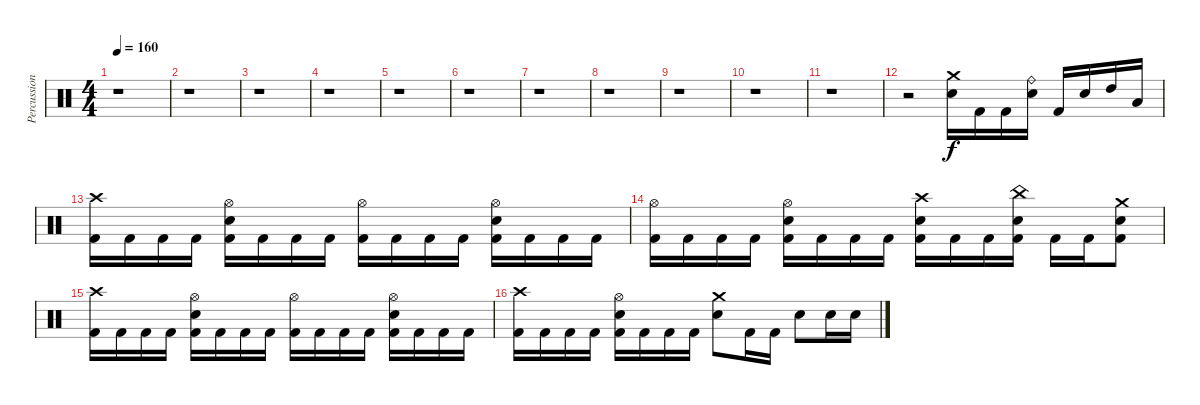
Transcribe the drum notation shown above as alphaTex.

\track ("Percussion" "Percussion") {instrument percussion}
\staff {score}
\articulation defaults
\ts (4 4)
\tempo 160
\clef neutral
\ks c
r.1{dy f} |
r.1 |
r.1 |
r.1 |
r.1 |
r.1 |
r.1 |
r.1 |
r.1 |
r.1 |
r.1 |
r.2 ("Crash medium (hit)" "Electric Snare (hit)").16 "Kick (hit) 2".16 "Kick (hit) 2".16 ("Ride (bell)" "Electric Snare (hit)").16 "Kick (hit) 2".16 "Electric Snare (hit)".16 "High Tom (hit)".16 "Low Tom (hit)".16 |
("Crash high (hit)" "Kick (hit) 2").16 "Kick (hit) 2".16 "Kick (hit) 2".16 "Kick (hit) 2".16 ("Hi-Hat (open)" "Electric Snare (hit)" "Kick (hit) 2").16 "Kick (hit) 2".16 "Kick (hit) 2".16 "Kick (hit) 2".16 ("Hi-Hat (open)" "Kick (hit) 2").16 "Kick (hit) 2".16 "Kick (hit) 2".16 "Kick (hit) 2".16 ("Hi-Hat (open)" "Electric Snare (hit)" "Kick (hit) 2").16 "Kick (hit) 2".16 "Kick (hit) 2".16 "Kick (hit) 2".16 |
("Hi-Hat (open)" "Kick (hit) 2").16 "Kick (hit) 2".16 "Kick (hit) 2".16 "Kick (hit) 2".16 ("Hi-Hat (open)" "Electric Snare (hit)" "Kick (hit) 2").16 "Kick (hit) 2".16 "Kick (hit) 2".16 "Kick (hit) 2".16 ("Crash high (hit)" "Electric Snare (hit)" "Kick (hit) 2").16 "Kick (hit) 2".16 "Kick (hit) 2".16 ("China (hit)" "Electric Snare (hit)" "Kick (hit) 2").16 "Kick (hit) 2".16 "Kick (hit) 2".16 ("Crash medium (hit)" "Electric Snare (hit)" "Kick (hit) 2").8 |
("Crash high (hit)" "Kick (hit) 2").16 "Kick (hit) 2".16 "Kick (hit) 2".16 "Kick (hit) 2".16 ("Hi-Hat (open)" "Electric Snare (hit)" "Kick (hit) 2").16 "Kick (hit) 2".16 "Kick (hit) 2".16 "Kick (hit) 2".16 ("Hi-Hat (open)" "Kick (hit) 2").16 "Kick (hit) 2".16 "Kick (hit) 2".16 "Kick (hit) 2".16 ("Hi-Hat (open)" "Electric Snare (hit)" "Kick (hit) 2").16 "Kick (hit) 2".16 "Kick (hit) 2".16 "Kick (hit) 2".16 |
("Crash high (hit)" "Kick (hit) 2").16 "Kick (hit) 2".16 "Kick (hit) 2".16 "Kick (hit) 2".16 ("Hi-Hat (open)" "Electric Snare (hit)" "Kick (hit) 2").16 "Kick (hit) 2".16 "Kick (hit) 2".16 "Kick (hit) 2".16 ("Crash medium (hit)" "Electric Snare (hit)").8 "Kick (hit) 2".16 "Kick (hit) 2".16 "Electric Snare (hit)".8 "Electric Snare (hit)".16 "Electric Snare (hit)".16
